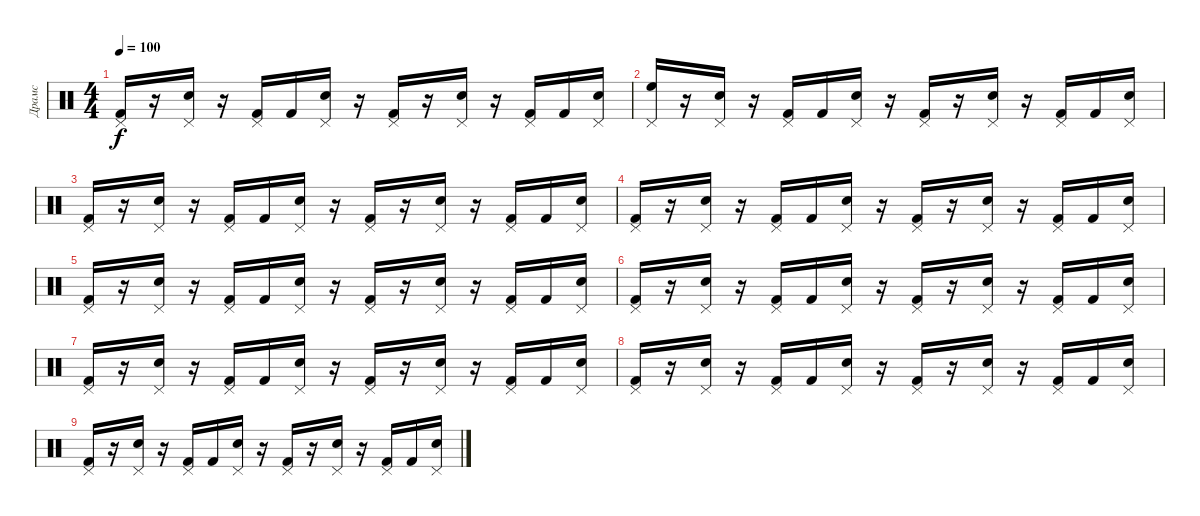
\track ("Драмс" "Драмс") {instrument percussion}
\staff {score}
\articulation defaults
\ts (4 4)
\tempo 100
\clef neutral
\ks c
("Pedal Hi-Hat (hit)" "Kick (hit) 2").16{dy f} r.16 ("Pedal Hi-Hat (hit)" "Snare (hit) 2").16 r.16 ("Pedal Hi-Hat (hit)" "Kick (hit) 2").16 "Kick (hit) 2".16 ("Pedal Hi-Hat (hit)" "Snare (hit) 2").16 r.16 ("Pedal Hi-Hat (hit)" "Kick (hit) 2").16 r.16 ("Pedal Hi-Hat (hit)" "Snare (hit) 2").16 r.16 ("Pedal Hi-Hat (hit)" "Kick (hit) 2").16 "Kick (hit) 2".16 ("Pedal Hi-Hat (hit)" "Snare (hit) 2").16 |
("Pedal Hi-Hat (hit)" "High Floor Tom (hit)").16 r.16 ("Pedal Hi-Hat (hit)" "Snare (hit) 2").16 r.16 ("Pedal Hi-Hat (hit)" "Kick (hit) 2").16 "Kick (hit) 2".16 ("Pedal Hi-Hat (hit)" "Snare (hit) 2").16 r.16 ("Pedal Hi-Hat (hit)" "Kick (hit) 2").16 r.16 ("Pedal Hi-Hat (hit)" "Snare (hit) 2").16 r.16 ("Pedal Hi-Hat (hit)" "Kick (hit) 2").16 "Kick (hit) 2".16 ("Pedal Hi-Hat (hit)" "Snare (hit) 2").16 |
("Pedal Hi-Hat (hit)" "Kick (hit) 2").16 r.16 ("Pedal Hi-Hat (hit)" "Snare (hit) 2").16 r.16 ("Pedal Hi-Hat (hit)" "Kick (hit) 2").16 "Kick (hit) 2".16 ("Pedal Hi-Hat (hit)" "Snare (hit) 2").16 r.16 ("Pedal Hi-Hat (hit)" "Kick (hit) 2").16 r.16 ("Pedal Hi-Hat (hit)" "Snare (hit) 2").16 r.16 ("Pedal Hi-Hat (hit)" "Kick (hit) 2").16 "Kick (hit) 2".16 ("Pedal Hi-Hat (hit)" "Snare (hit) 2").16 |
("Pedal Hi-Hat (hit)" "Kick (hit) 2").16 r.16 ("Pedal Hi-Hat (hit)" "Snare (hit) 2").16 r.16 ("Pedal Hi-Hat (hit)" "Kick (hit) 2").16 "Kick (hit) 2".16 ("Pedal Hi-Hat (hit)" "Snare (hit) 2").16 r.16 ("Pedal Hi-Hat (hit)" "Kick (hit) 2").16 r.16 ("Pedal Hi-Hat (hit)" "Snare (hit) 2").16 r.16 ("Pedal Hi-Hat (hit)" "Kick (hit) 2").16 "Kick (hit) 2".16 ("Pedal Hi-Hat (hit)" "Snare (hit) 2").16 |
("Pedal Hi-Hat (hit)" "Kick (hit) 2").16 r.16 ("Pedal Hi-Hat (hit)" "Snare (hit) 2").16 r.16 ("Pedal Hi-Hat (hit)" "Kick (hit) 2").16 "Kick (hit) 2".16 ("Pedal Hi-Hat (hit)" "Snare (hit) 2").16 r.16 ("Pedal Hi-Hat (hit)" "Kick (hit) 2").16 r.16 ("Pedal Hi-Hat (hit)" "Snare (hit) 2").16 r.16 ("Pedal Hi-Hat (hit)" "Kick (hit) 2").16 "Kick (hit) 2".16 ("Pedal Hi-Hat (hit)" "Snare (hit) 2").16 |
("Pedal Hi-Hat (hit)" "Kick (hit) 2").16 r.16 ("Pedal Hi-Hat (hit)" "Snare (hit) 2").16 r.16 ("Pedal Hi-Hat (hit)" "Kick (hit) 2").16 "Kick (hit) 2".16 ("Pedal Hi-Hat (hit)" "Snare (hit) 2").16 r.16 ("Pedal Hi-Hat (hit)" "Kick (hit) 2").16 r.16 ("Pedal Hi-Hat (hit)" "Snare (hit) 2").16 r.16 ("Pedal Hi-Hat (hit)" "Kick (hit) 2").16 "Kick (hit) 2".16 ("Pedal Hi-Hat (hit)" "Snare (hit) 2").16 |
("Pedal Hi-Hat (hit)" "Kick (hit) 2").16 r.16 ("Pedal Hi-Hat (hit)" "Snare (hit) 2").16 r.16 ("Pedal Hi-Hat (hit)" "Kick (hit) 2").16 "Kick (hit) 2".16 ("Pedal Hi-Hat (hit)" "Snare (hit) 2").16 r.16 ("Pedal Hi-Hat (hit)" "Kick (hit) 2").16 r.16 ("Pedal Hi-Hat (hit)" "Snare (hit) 2").16 r.16 ("Pedal Hi-Hat (hit)" "Kick (hit) 2").16 "Kick (hit) 2".16 ("Pedal Hi-Hat (hit)" "Snare (hit) 2").16 |
("Pedal Hi-Hat (hit)" "Kick (hit) 2").16 r.16 ("Pedal Hi-Hat (hit)" "Snare (hit) 2").16 r.16 ("Pedal Hi-Hat (hit)" "Kick (hit) 2").16 "Kick (hit) 2".16 ("Pedal Hi-Hat (hit)" "Snare (hit) 2").16 r.16 ("Pedal Hi-Hat (hit)" "Kick (hit) 2").16 r.16 ("Pedal Hi-Hat (hit)" "Snare (hit) 2").16 r.16 ("Pedal Hi-Hat (hit)" "Kick (hit) 2").16 "Kick (hit) 2".16 ("Pedal Hi-Hat (hit)" "Snare (hit) 2").16 |
("Pedal Hi-Hat (hit)" "Kick (hit) 2").16 r.16 ("Pedal Hi-Hat (hit)" "Snare (hit) 2").16 r.16 ("Pedal Hi-Hat (hit)" "Kick (hit) 2").16 "Kick (hit) 2".16 ("Pedal Hi-Hat (hit)" "Snare (hit) 2").16 r.16 ("Pedal Hi-Hat (hit)" "Kick (hit) 2").16 r.16 ("Pedal Hi-Hat (hit)" "Snare (hit) 2").16 r.16 ("Pedal Hi-Hat (hit)" "Kick (hit) 2").16 "Kick (hit) 2".16 ("Pedal Hi-Hat (hit)" "Snare (hit) 2").16
